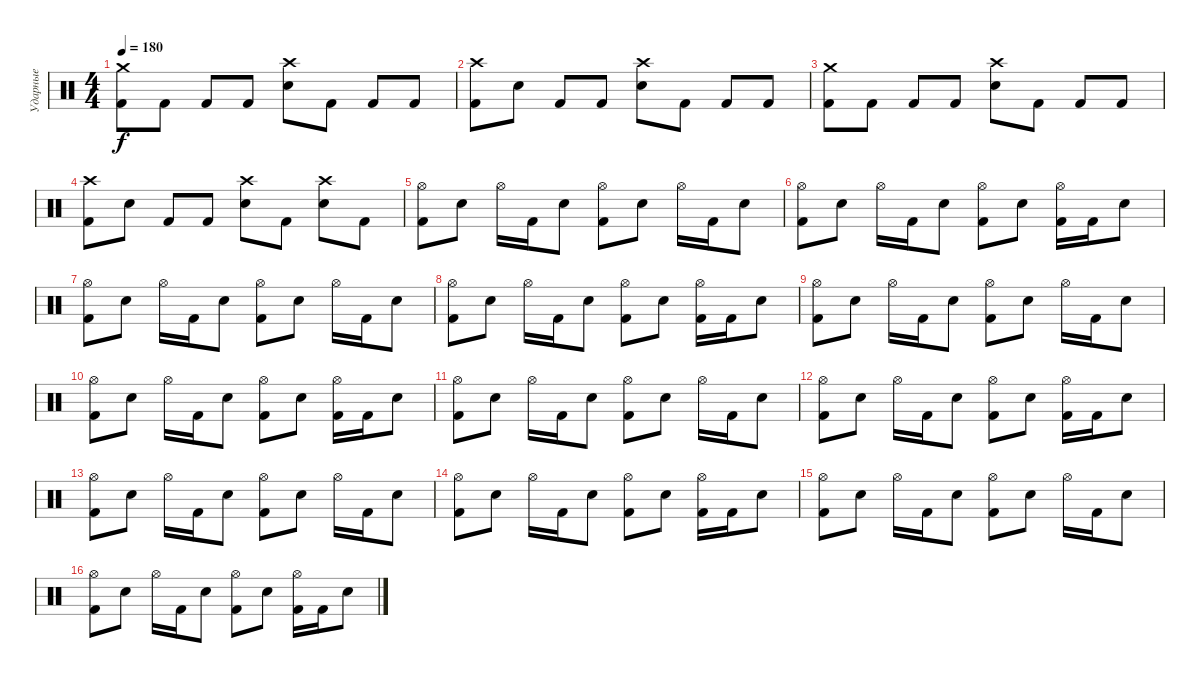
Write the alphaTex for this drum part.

\track ("Ударные" "Ударные") {instrument percussion}
\staff {score}
\articulation defaults
\ts (4 4)
\tempo 180
\clef neutral
\ks c
("Crash medium (hit)" "Kick (hit) 2").8{dy f} "Kick (hit) 2".8 "Kick (hit) 2".8 "Kick (hit) 2".8 ("Crash high (hit)" "Electric Snare (hit)").8 "Kick (hit) 2".8 "Kick (hit) 2".8 "Kick (hit) 2".8 |
("Crash high (hit)" "Kick (hit) 2").8 "Electric Snare (hit)".8 "Kick (hit) 2".8 "Kick (hit) 2".8 ("Crash high (hit)" "Electric Snare (hit)").8 "Kick (hit) 2".8 "Kick (hit) 2".8 "Kick (hit) 2".8 |
("Crash medium (hit)" "Kick (hit) 2").8 "Kick (hit) 2".8 "Kick (hit) 2".8 "Kick (hit) 2".8 ("Crash high (hit)" "Electric Snare (hit)").8 "Kick (hit) 2".8 "Kick (hit) 2".8 "Kick (hit) 2".8 |
("Crash high (hit)" "Kick (hit) 2").8 "Electric Snare (hit)".8 "Kick (hit) 2".8 "Kick (hit) 2".8 ("Crash high (hit)" "Electric Snare (hit)").8 "Kick (hit) 2".8 ("Crash high (hit)" "Electric Snare (hit)").8 "Kick (hit) 2".8 |
("Hi-Hat (open)" "Kick (hit) 2").8 "Electric Snare (hit)".8 "Hi-Hat (open)".16 "Kick (hit) 2".16 "Electric Snare (hit)".8 ("Hi-Hat (open)" "Kick (hit) 2").8 "Electric Snare (hit)".8 "Hi-Hat (open)".16 "Kick (hit) 2".16 "Electric Snare (hit)".8 |
("Hi-Hat (open)" "Kick (hit) 2").8 "Electric Snare (hit)".8 "Hi-Hat (open)".16 "Kick (hit) 2".16 "Electric Snare (hit)".8 ("Hi-Hat (open)" "Kick (hit) 2").8 "Electric Snare (hit)".8 ("Hi-Hat (open)" "Kick (hit) 2").16 "Kick (hit) 2".16 "Electric Snare (hit)".8 |
("Hi-Hat (open)" "Kick (hit) 2").8 "Electric Snare (hit)".8 "Hi-Hat (open)".16 "Kick (hit) 2".16 "Electric Snare (hit)".8 ("Hi-Hat (open)" "Kick (hit) 2").8 "Electric Snare (hit)".8 "Hi-Hat (open)".16 "Kick (hit) 2".16 "Electric Snare (hit)".8 |
("Hi-Hat (open)" "Kick (hit) 2").8 "Electric Snare (hit)".8 "Hi-Hat (open)".16 "Kick (hit) 2".16 "Electric Snare (hit)".8 ("Hi-Hat (open)" "Kick (hit) 2").8 "Electric Snare (hit)".8 ("Hi-Hat (open)" "Kick (hit) 2").16 "Kick (hit) 2".16 "Electric Snare (hit)".8 |
("Hi-Hat (open)" "Kick (hit) 2").8 "Electric Snare (hit)".8 "Hi-Hat (open)".16 "Kick (hit) 2".16 "Electric Snare (hit)".8 ("Hi-Hat (open)" "Kick (hit) 2").8 "Electric Snare (hit)".8 "Hi-Hat (open)".16 "Kick (hit) 2".16 "Electric Snare (hit)".8 |
("Hi-Hat (open)" "Kick (hit) 2").8 "Electric Snare (hit)".8 "Hi-Hat (open)".16 "Kick (hit) 2".16 "Electric Snare (hit)".8 ("Hi-Hat (open)" "Kick (hit) 2").8 "Electric Snare (hit)".8 ("Hi-Hat (open)" "Kick (hit) 2").16 "Kick (hit) 2".16 "Electric Snare (hit)".8 |
("Hi-Hat (open)" "Kick (hit) 2").8 "Electric Snare (hit)".8 "Hi-Hat (open)".16 "Kick (hit) 2".16 "Electric Snare (hit)".8 ("Hi-Hat (open)" "Kick (hit) 2").8 "Electric Snare (hit)".8 "Hi-Hat (open)".16 "Kick (hit) 2".16 "Electric Snare (hit)".8 |
("Hi-Hat (open)" "Kick (hit) 2").8 "Electric Snare (hit)".8 "Hi-Hat (open)".16 "Kick (hit) 2".16 "Electric Snare (hit)".8 ("Hi-Hat (open)" "Kick (hit) 2").8 "Electric Snare (hit)".8 ("Hi-Hat (open)" "Kick (hit) 2").16 "Kick (hit) 2".16 "Electric Snare (hit)".8 |
("Hi-Hat (open)" "Kick (hit) 2").8 "Electric Snare (hit)".8 "Hi-Hat (open)".16 "Kick (hit) 2".16 "Electric Snare (hit)".8 ("Hi-Hat (open)" "Kick (hit) 2").8 "Electric Snare (hit)".8 "Hi-Hat (open)".16 "Kick (hit) 2".16 "Electric Snare (hit)".8 |
("Hi-Hat (open)" "Kick (hit) 2").8 "Electric Snare (hit)".8 "Hi-Hat (open)".16 "Kick (hit) 2".16 "Electric Snare (hit)".8 ("Hi-Hat (open)" "Kick (hit) 2").8 "Electric Snare (hit)".8 ("Hi-Hat (open)" "Kick (hit) 2").16 "Kick (hit) 2".16 "Electric Snare (hit)".8 |
("Hi-Hat (open)" "Kick (hit) 2").8 "Electric Snare (hit)".8 "Hi-Hat (open)".16 "Kick (hit) 2".16 "Electric Snare (hit)".8 ("Hi-Hat (open)" "Kick (hit) 2").8 "Electric Snare (hit)".8 "Hi-Hat (open)".16 "Kick (hit) 2".16 "Electric Snare (hit)".8 |
("Hi-Hat (open)" "Kick (hit) 2").8 "Electric Snare (hit)".8 "Hi-Hat (open)".16 "Kick (hit) 2".16 "Electric Snare (hit)".8 ("Hi-Hat (open)" "Kick (hit) 2").8 "Electric Snare (hit)".8 ("Hi-Hat (open)" "Kick (hit) 2").16 "Kick (hit) 2".16 "Electric Snare (hit)".8
